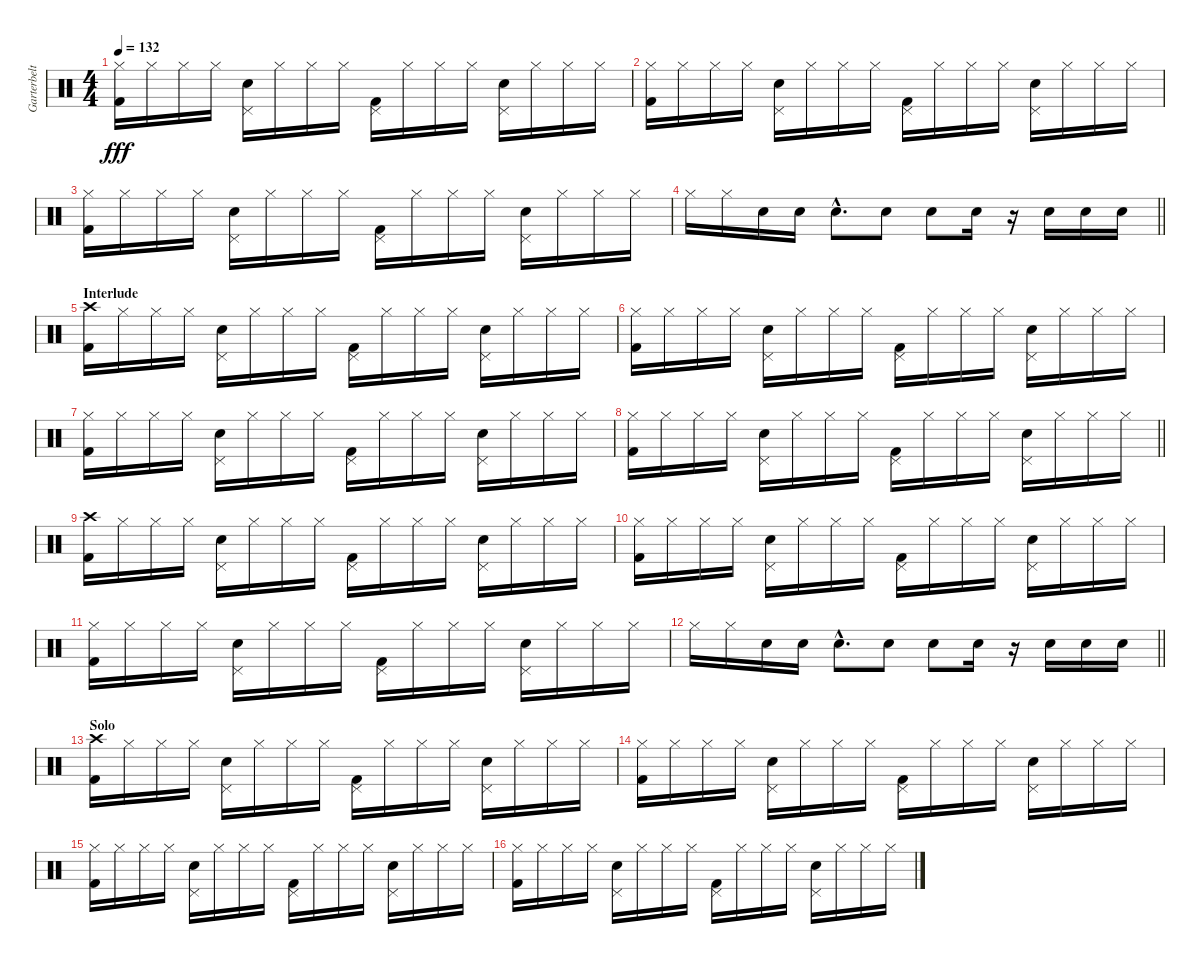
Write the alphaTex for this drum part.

\track ("Garterbelt" "Garterbelt") {instrument percussion}
\staff {score}
\articulation defaults
\ts (4 4)
\tempo 132
\clef neutral
\ks c
("Hi-Hat (closed)" "Kick (hit) 2").16{dy fff} "Hi-Hat (closed)".16 "Hi-Hat (closed)".16 "Hi-Hat (closed)".16 ("Pedal Hi-Hat (hit)" "Hand Clap (hit)").16 "Hi-Hat (closed)".16 "Hi-Hat (closed)".16 "Hi-Hat (closed)".16 ("Pedal Hi-Hat (hit)" "Kick (hit) 2").16 "Hi-Hat (closed)".16 "Hi-Hat (closed)".16 "Hi-Hat (closed)".16 ("Pedal Hi-Hat (hit)" "Hand Clap (hit)").16 "Hi-Hat (closed)".16 "Hi-Hat (closed)".16 "Hi-Hat (closed)".16 |
("Hi-Hat (closed)" "Kick (hit) 2").16 "Hi-Hat (closed)".16 "Hi-Hat (closed)".16 "Hi-Hat (closed)".16 ("Pedal Hi-Hat (hit)" "Hand Clap (hit)").16 "Hi-Hat (closed)".16 "Hi-Hat (closed)".16 "Hi-Hat (closed)".16 ("Pedal Hi-Hat (hit)" "Kick (hit) 2").16 "Hi-Hat (closed)".16 "Hi-Hat (closed)".16 "Hi-Hat (closed)".16 ("Pedal Hi-Hat (hit)" "Hand Clap (hit)").16 "Hi-Hat (closed)".16 "Hi-Hat (closed)".16 "Hi-Hat (closed)".16 |
("Hi-Hat (closed)" "Kick (hit) 2").16 "Hi-Hat (closed)".16 "Hi-Hat (closed)".16 "Hi-Hat (closed)".16 ("Pedal Hi-Hat (hit)" "Hand Clap (hit)").16 "Hi-Hat (closed)".16 "Hi-Hat (closed)".16 "Hi-Hat (closed)".16 ("Pedal Hi-Hat (hit)" "Kick (hit) 2").16 "Hi-Hat (closed)".16 "Hi-Hat (closed)".16 "Hi-Hat (closed)".16 ("Pedal Hi-Hat (hit)" "Hand Clap (hit)").16 "Hi-Hat (closed)".16 "Hi-Hat (closed)".16 "Hi-Hat (closed)".16 |
\barLineRight lightlight "Hi-Hat (closed)".16 "Hi-Hat (closed)".16 "Hand Clap (hit)".16 "Hand Clap (hit)".16 "Hand Clap (hit)"{hac}.8{d} "Hand Clap (hit)".8 "Hand Clap (hit)".8 "Hand Clap (hit)".16
r.16 "Hand Clap (hit)".16 "Hand Clap (hit)".16 "Hand Clap (hit)".16 |
\section ("" "Interlude")
("Crash high (hit)" "Kick (hit) 2").16 "Hi-Hat (closed)".16 "Hi-Hat (closed)".16 "Hi-Hat (closed)".16 ("Pedal Hi-Hat (hit)" "Hand Clap (hit)").16 "Hi-Hat (closed)".16 "Hi-Hat (closed)".16 "Hi-Hat (closed)".16 ("Pedal Hi-Hat (hit)" "Kick (hit) 2").16 "Hi-Hat (closed)".16 "Hi-Hat (closed)".16 "Hi-Hat (closed)".16 ("Pedal Hi-Hat (hit)" "Hand Clap (hit)").16 "Hi-Hat (closed)".16 "Hi-Hat (closed)".16 "Hi-Hat (closed)".16 |
("Hi-Hat (closed)" "Kick (hit) 2").16 "Hi-Hat (closed)".16 "Hi-Hat (closed)".16 "Hi-Hat (closed)".16 ("Pedal Hi-Hat (hit)" "Hand Clap (hit)").16 "Hi-Hat (closed)".16 "Hi-Hat (closed)".16 "Hi-Hat (closed)".16 ("Pedal Hi-Hat (hit)" "Kick (hit) 2").16 "Hi-Hat (closed)".16 "Hi-Hat (closed)".16 "Hi-Hat (closed)".16 ("Pedal Hi-Hat (hit)" "Hand Clap (hit)").16 "Hi-Hat (closed)".16 "Hi-Hat (closed)".16 "Hi-Hat (closed)".16 |
("Hi-Hat (closed)" "Kick (hit) 2").16 "Hi-Hat (closed)".16 "Hi-Hat (closed)".16 "Hi-Hat (closed)".16 ("Pedal Hi-Hat (hit)" "Hand Clap (hit)").16 "Hi-Hat (closed)".16 "Hi-Hat (closed)".16 "Hi-Hat (closed)".16 ("Pedal Hi-Hat (hit)" "Kick (hit) 2").16 "Hi-Hat (closed)".16 "Hi-Hat (closed)".16 "Hi-Hat (closed)".16 ("Pedal Hi-Hat (hit)" "Hand Clap (hit)").16 "Hi-Hat (closed)".16 "Hi-Hat (closed)".16 "Hi-Hat (closed)".16 |
\barLineRight lightlight
("Hi-Hat (closed)" "Kick (hit) 2").16 "Hi-Hat (closed)".16 "Hi-Hat (closed)".16 "Hi-Hat (closed)".16 ("Pedal Hi-Hat (hit)" "Hand Clap (hit)").16 "Hi-Hat (closed)".16 "Hi-Hat (closed)".16 "Hi-Hat (closed)".16 ("Pedal Hi-Hat (hit)" "Kick (hit) 2").16 "Hi-Hat (closed)".16 "Hi-Hat (closed)".16 "Hi-Hat (closed)".16 ("Pedal Hi-Hat (hit)" "Hand Clap (hit)").16 "Hi-Hat (closed)".16 "Hi-Hat (closed)".16 "Hi-Hat (closed)".16 |
("Crash high (hit)" "Kick (hit) 2").16 "Hi-Hat (closed)".16 "Hi-Hat (closed)".16 "Hi-Hat (closed)".16 ("Pedal Hi-Hat (hit)" "Hand Clap (hit)").16 "Hi-Hat (closed)".16 "Hi-Hat (closed)".16 "Hi-Hat (closed)".16 ("Pedal Hi-Hat (hit)" "Kick (hit) 2").16 "Hi-Hat (closed)".16 "Hi-Hat (closed)".16 "Hi-Hat (closed)".16 ("Pedal Hi-Hat (hit)" "Hand Clap (hit)").16 "Hi-Hat (closed)".16 "Hi-Hat (closed)".16 "Hi-Hat (closed)".16 |
("Hi-Hat (closed)" "Kick (hit) 2").16 "Hi-Hat (closed)".16 "Hi-Hat (closed)".16 "Hi-Hat (closed)".16 ("Pedal Hi-Hat (hit)" "Hand Clap (hit)").16 "Hi-Hat (closed)".16 "Hi-Hat (closed)".16 "Hi-Hat (closed)".16 ("Pedal Hi-Hat (hit)" "Kick (hit) 2").16 "Hi-Hat (closed)".16 "Hi-Hat (closed)".16 "Hi-Hat (closed)".16 ("Pedal Hi-Hat (hit)" "Hand Clap (hit)").16 "Hi-Hat (closed)".16 "Hi-Hat (closed)".16 "Hi-Hat (closed)".16 |
("Hi-Hat (closed)" "Kick (hit) 2").16 "Hi-Hat (closed)".16 "Hi-Hat (closed)".16 "Hi-Hat (closed)".16 ("Pedal Hi-Hat (hit)" "Hand Clap (hit)").16 "Hi-Hat (closed)".16 "Hi-Hat (closed)".16 "Hi-Hat (closed)".16 ("Pedal Hi-Hat (hit)" "Kick (hit) 2").16 "Hi-Hat (closed)".16 "Hi-Hat (closed)".16 "Hi-Hat (closed)".16 ("Pedal Hi-Hat (hit)" "Hand Clap (hit)").16 "Hi-Hat (closed)".16 "Hi-Hat (closed)".16 "Hi-Hat (closed)".16 |
\barLineRight lightlight "Hi-Hat (closed)".16 "Hi-Hat (closed)".16 "Hand Clap (hit)".16 "Hand Clap (hit)".16 "Hand Clap (hit)"{hac}.8{d} "Hand Clap (hit)".8 "Hand Clap (hit)".8 "Hand Clap (hit)".16
r.16 "Hand Clap (hit)".16 "Hand Clap (hit)".16 "Hand Clap (hit)".16 |
\section ("" "Solo")
("Crash high (hit)" "Kick (hit) 2").16 "Hi-Hat (closed)".16 "Hi-Hat (closed)".16 "Hi-Hat (closed)".16 ("Pedal Hi-Hat (hit)" "Hand Clap (hit)").16 "Hi-Hat (closed)".16 "Hi-Hat (closed)".16 "Hi-Hat (closed)".16 ("Pedal Hi-Hat (hit)" "Kick (hit) 2").16 "Hi-Hat (closed)".16 "Hi-Hat (closed)".16 "Hi-Hat (closed)".16 ("Pedal Hi-Hat (hit)" "Hand Clap (hit)").16 "Hi-Hat (closed)".16 "Hi-Hat (closed)".16 "Hi-Hat (closed)".16 |
("Hi-Hat (closed)" "Kick (hit) 2").16 "Hi-Hat (closed)".16 "Hi-Hat (closed)".16 "Hi-Hat (closed)".16 ("Pedal Hi-Hat (hit)" "Hand Clap (hit)").16 "Hi-Hat (closed)".16 "Hi-Hat (closed)".16 "Hi-Hat (closed)".16 ("Pedal Hi-Hat (hit)" "Kick (hit) 2").16 "Hi-Hat (closed)".16 "Hi-Hat (closed)".16 "Hi-Hat (closed)".16 ("Pedal Hi-Hat (hit)" "Hand Clap (hit)").16 "Hi-Hat (closed)".16 "Hi-Hat (closed)".16 "Hi-Hat (closed)".16 |
("Hi-Hat (closed)" "Kick (hit) 2").16 "Hi-Hat (closed)".16 "Hi-Hat (closed)".16 "Hi-Hat (closed)".16 ("Pedal Hi-Hat (hit)" "Hand Clap (hit)").16 "Hi-Hat (closed)".16 "Hi-Hat (closed)".16 "Hi-Hat (closed)".16 ("Pedal Hi-Hat (hit)" "Kick (hit) 2").16 "Hi-Hat (closed)".16 "Hi-Hat (closed)".16 "Hi-Hat (closed)".16 ("Pedal Hi-Hat (hit)" "Hand Clap (hit)").16 "Hi-Hat (closed)".16 "Hi-Hat (closed)".16 "Hi-Hat (closed)".16 |
("Hi-Hat (closed)" "Kick (hit) 2").16 "Hi-Hat (closed)".16 "Hi-Hat (closed)".16 "Hi-Hat (closed)".16 ("Pedal Hi-Hat (hit)" "Hand Clap (hit)").16 "Hi-Hat (closed)".16 "Hi-Hat (closed)".16 "Hi-Hat (closed)".16 ("Pedal Hi-Hat (hit)" "Kick (hit) 2").16 "Hi-Hat (closed)".16 "Hi-Hat (closed)".16 "Hi-Hat (closed)".16 ("Pedal Hi-Hat (hit)" "Hand Clap (hit)").16 "Hi-Hat (closed)".16 "Hi-Hat (closed)".16 "Hi-Hat (closed)".16
